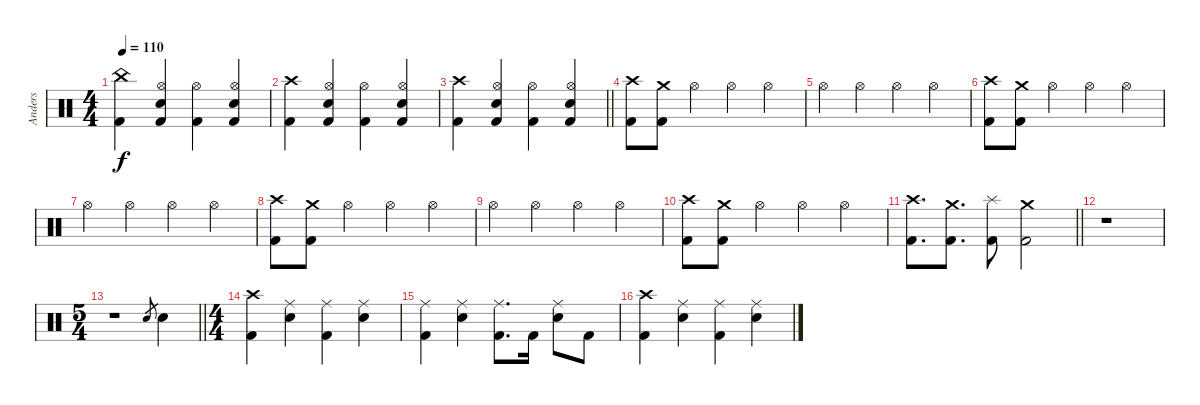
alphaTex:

\track ("Anders" "Anders") {instrument percussion}
\staff {score}
\articulation defaults
\ts (4 4)
\tempo 110
\clef neutral
\ks c
("China (hit)" "Kick (hit) 2").4{dy f} ("Hi-Hat (open)" "Snare (hit) 2" "Kick (hit) 2").4 ("Hi-Hat (open)" "Kick (hit) 2").4 ("Hi-Hat (open)" "Snare (hit) 2" "Kick (hit) 2").4 |
("Crash high (hit)" "Kick (hit) 2").4 ("Hi-Hat (open)" "Snare (hit) 2" "Kick (hit) 2").4 ("Hi-Hat (open)" "Kick (hit) 2").4 ("Hi-Hat (open)" "Snare (hit) 2" "Kick (hit) 2").4 |
\barLineRight lightlight
("Crash high (hit)" "Kick (hit) 2").4 ("Hi-Hat (open)" "Snare (hit) 2" "Kick (hit) 2").4 ("Hi-Hat (open)" "Kick (hit) 2").4 ("Hi-Hat (open)" "Snare (hit) 2" "Kick (hit) 2").4 |
("Crash high (hit)" "Kick (hit) 2").8 ("Crash medium (hit)" "Kick (hit) 2").8 "Hi-Hat (open)".4 "Hi-Hat (open)".4 "Hi-Hat (open)".4 |
"Hi-Hat (open)".4 "Hi-Hat (open)".4 "Hi-Hat (open)".4 "Hi-Hat (open)".4 |
("Crash high (hit)" "Kick (hit) 2").8 ("Crash medium (hit)" "Kick (hit) 2").8 "Hi-Hat (open)".4 "Hi-Hat (open)".4 "Hi-Hat (open)".4 |
"Hi-Hat (open)".4 "Hi-Hat (open)".4 "Hi-Hat (open)".4 "Hi-Hat (open)".4 |
("Crash high (hit)" "Kick (hit) 2").8 ("Crash medium (hit)" "Kick (hit) 2").8 "Hi-Hat (open)".4 "Hi-Hat (open)".4 "Hi-Hat (open)".4 |
"Hi-Hat (open)".4 "Hi-Hat (open)".4 "Hi-Hat (open)".4 "Hi-Hat (open)".4 |
("Crash high (hit)" "Kick (hit) 2").8 ("Crash medium (hit)" "Kick (hit) 2").8 "Hi-Hat (open)".4 "Hi-Hat (open)".4 "Hi-Hat (open)".4 |
\barLineRight lightlight
("Crash high (hit)" "Kick (hit) 2").8{d} ("Crash medium (hit)" "Kick (hit) 2").8{d} ("Splash (hit)" "Kick (hit) 2").8 ("Crash medium (hit)" "Kick (hit) 2").2 |
r.1 |
\ts (5 4)
\barLineRight lightlight
r.1 "Snare (hit) 2".8{gr} "Snare (hit) 2".4 |
\ts (4 4)
("Crash high (hit)" "Kick (hit) 2").4 ("Ride (middle)" "Snare (hit) 2").4 ("Ride (middle)" "Kick (hit) 2").4 ("Ride (middle)" "Snare (hit) 2").4 |
("Ride (middle)" "Kick (hit) 2").4 ("Ride (middle)" "Snare (hit) 2").4 ("Ride (middle)" "Kick (hit) 2").8{d} "Kick (hit) 2".16 ("Ride (middle)" "Snare (hit) 2").8 "Kick (hit) 2".8 |
("Crash high (hit)" "Kick (hit) 2").4 ("Ride (middle)" "Snare (hit) 2").4 ("Ride (middle)" "Kick (hit) 2").4 ("Ride (middle)" "Snare (hit) 2").4
